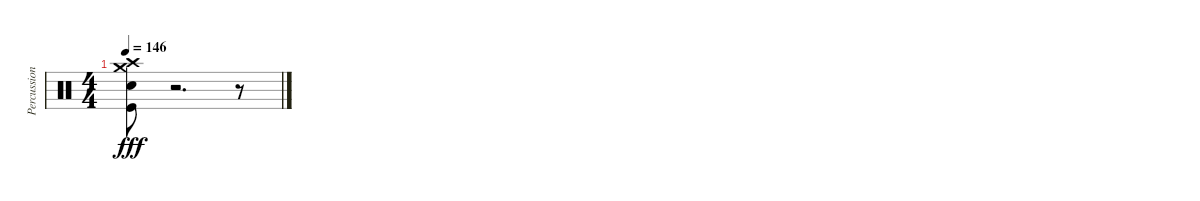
\track ("Percussion" "Percussion") {instrument percussion}
\staff {score}
\articulation defaults
\ts (4 4)
\tempo 146
\clef neutral
\ks c
("Crash medium (hit)" "Crash high (hit)" "Snare (hit) 2" "Kick (hit)").8{dy fff} r.2{d} r.8
